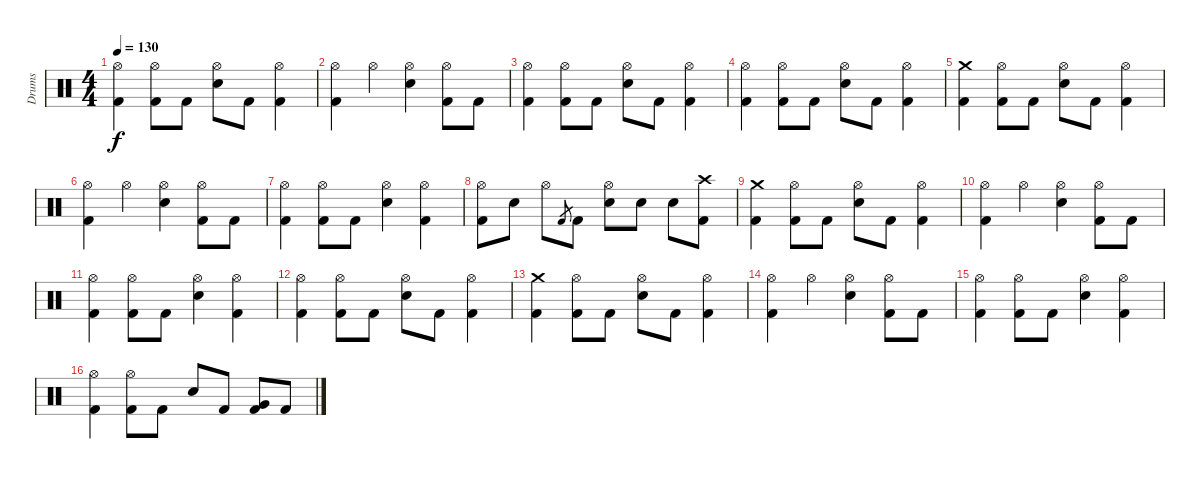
\track ("Drums" "Drums") {instrument percussion}
\staff {score}
\articulation defaults
\ts (4 4)
\tempo 130
\clef neutral
\ks c
("Hi-Hat (open)" "Kick (hit) 2").4{dy f} ("Hi-Hat (open)" "Kick (hit) 2").8 "Kick (hit) 2".8 ("Hi-Hat (open)" "Electric Snare (hit)").8 "Kick (hit) 2".8 ("Hi-Hat (open)" "Kick (hit) 2").4 |
("Hi-Hat (open)" "Kick (hit) 2").4 "Hi-Hat (open)".4 ("Hi-Hat (open)" "Electric Snare (hit)").4 ("Hi-Hat (open)" "Kick (hit) 2").8 "Kick (hit) 2".8 |
("Hi-Hat (open)" "Kick (hit) 2").4 ("Hi-Hat (open)" "Kick (hit) 2").8 "Kick (hit) 2".8 ("Hi-Hat (open)" "Electric Snare (hit)").8 "Kick (hit) 2".8 ("Hi-Hat (open)" "Kick (hit) 2").4 |
("Hi-Hat (open)" "Kick (hit) 2").4 ("Hi-Hat (open)" "Kick (hit) 2").8 "Kick (hit) 2".8 ("Hi-Hat (open)" "Electric Snare (hit)").8 "Kick (hit) 2".8 ("Hi-Hat (open)" "Kick (hit) 2").4 |
("Crash medium (hit)" "Kick (hit) 2").4 ("Hi-Hat (open)" "Kick (hit) 2").8 "Kick (hit) 2".8 ("Hi-Hat (open)" "Electric Snare (hit)").8 "Kick (hit) 2".8 ("Hi-Hat (open)" "Kick (hit) 2").4 |
("Hi-Hat (open)" "Kick (hit) 2").4 "Hi-Hat (open)".4 ("Hi-Hat (open)" "Electric Snare (hit)").4 ("Hi-Hat (open)" "Kick (hit) 2").8 "Kick (hit) 2".8 |
("Hi-Hat (open)" "Kick (hit) 2").4 ("Hi-Hat (open)" "Kick (hit) 2").8 "Kick (hit) 2".8 ("Hi-Hat (open)" "Electric Snare (hit)").4 ("Hi-Hat (open)" "Kick (hit) 2").4 |
("Hi-Hat (open)" "Kick (hit) 2").8 "Electric Snare (hit)".8 "Hi-Hat (open)".8 "Kick (hit) 2".8{gr} "Kick (hit) 2".8 ("Hi-Hat (open)" "Electric Snare (hit)").8 "Electric Snare (hit)".8 "Electric Snare (hit)".8 ("Crash high (hit)" "Kick (hit) 2").8 |
("Crash medium (hit)" "Kick (hit) 2").4 ("Hi-Hat (open)" "Kick (hit) 2").8 "Kick (hit) 2".8 ("Hi-Hat (open)" "Electric Snare (hit)").8 "Kick (hit) 2".8 ("Hi-Hat (open)" "Kick (hit) 2").4 |
("Hi-Hat (open)" "Kick (hit) 2").4 "Hi-Hat (open)".4 ("Hi-Hat (open)" "Electric Snare (hit)").4 ("Hi-Hat (open)" "Kick (hit) 2").8 "Kick (hit) 2".8 |
("Hi-Hat (open)" "Kick (hit) 2").4 ("Hi-Hat (open)" "Kick (hit) 2").8 "Kick (hit) 2".8 ("Hi-Hat (open)" "Electric Snare (hit)").4 ("Hi-Hat (open)" "Kick (hit) 2").4 |
("Hi-Hat (open)" "Kick (hit) 2").4 ("Hi-Hat (open)" "Kick (hit) 2").8 "Kick (hit) 2".8 ("Hi-Hat (open)" "Electric Snare (hit)").8 "Kick (hit) 2".8 ("Hi-Hat (open)" "Kick (hit) 2").4 |
("Crash medium (hit)" "Kick (hit) 2").4 ("Hi-Hat (open)" "Kick (hit) 2").8 "Kick (hit) 2".8 ("Hi-Hat (open)" "Electric Snare (hit)").8 "Kick (hit) 2".8 ("Hi-Hat (open)" "Kick (hit) 2").4 |
("Hi-Hat (open)" "Kick (hit) 2").4 "Hi-Hat (open)".4 ("Hi-Hat (open)" "Electric Snare (hit)").4 ("Hi-Hat (open)" "Kick (hit) 2").8 "Kick (hit) 2".8 |
("Hi-Hat (open)" "Kick (hit) 2").4 ("Hi-Hat (open)" "Kick (hit) 2").8 "Kick (hit) 2".8 ("Hi-Hat (open)" "Electric Snare (hit)").4 ("Hi-Hat (open)" "Kick (hit) 2").4 |
("Hi-Hat (open)" "Kick (hit) 2").4 ("Hi-Hat (open)" "Kick (hit) 2").8 "Kick (hit) 2".8 "Electric Snare (hit)".8 "Kick (hit) 2".8 ("Very Low Tom (hit)" "Kick (hit) 2").8 "Kick (hit) 2".8
